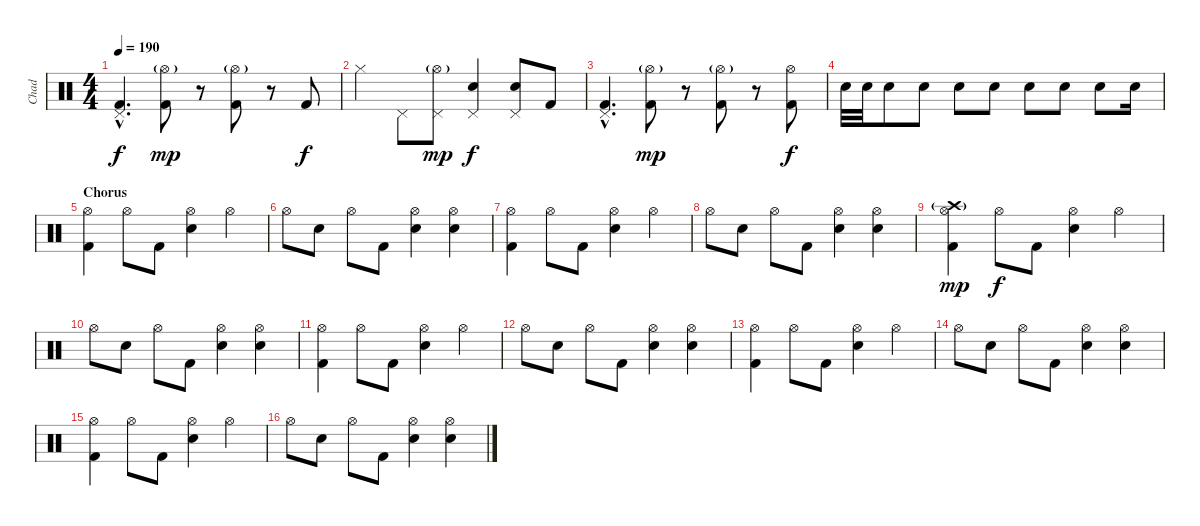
\track ("Chad" "Chad") {instrument percussion}
\staff {score}
\articulation defaults
\ts (4 4)
\tempo 190
\clef neutral
\ks c
("Kick (hit) 2"{hac} "Pedal Hi-Hat (hit)"{hac}).4{d dy f} ("Kick (hit) 2" "Hi-Hat (open)"{g}).8{dy mp} r.8 ("Kick (hit) 2" "Hi-Hat (open)"{g}).8 r.8 "Kick (hit) 2".8{dy f} |
"Hi-Hat (closed)".4 "Pedal Hi-Hat (hit)".8 ("Pedal Hi-Hat (hit)" "Hi-Hat (open)"{g}).8{dy mp} ("Electric Snare (hit)" "Pedal Hi-Hat (hit)").4{dy f} ("Electric Snare (hit)" "Pedal Hi-Hat (hit)").8 "Kick (hit) 2".8 |
("Kick (hit) 2"{hac} "Pedal Hi-Hat (hit)"{hac}).4{d} ("Kick (hit) 2" "Hi-Hat (open)"{g}).8{dy mp} r.8 ("Kick (hit) 2" "Hi-Hat (open)"{g}).8 r.8 ("Kick (hit) 2" "Hi-Hat (open)").8{dy f} |
"Electric Snare (hit)".32 "Electric Snare (hit)".32 "Electric Snare (hit)".8 "Electric Snare (hit)".8 "Electric Snare (hit)".8 "Electric Snare (hit)".8 "Electric Snare (hit)".8 "Electric Snare (hit)".8 "Electric Snare (hit)".8 "Electric Snare (hit)".16 |
\section ("" "Chorus")
("Hi-Hat (open)" "Kick (hit) 2").4 "Hi-Hat (open)".8 "Kick (hit) 2".8 ("Hi-Hat (open)" "Electric Snare (hit)").4 "Hi-Hat (open)".4 |
"Hi-Hat (open)".8 "Electric Snare (hit)".8 "Hi-Hat (open)".8 "Kick (hit) 2".8 ("Hi-Hat (open)" "Electric Snare (hit)").4 ("Hi-Hat (open)" "Electric Snare (hit)").4 |
("Hi-Hat (open)" "Kick (hit) 2").4 "Hi-Hat (open)".8 "Kick (hit) 2".8 ("Hi-Hat (open)" "Electric Snare (hit)").4 "Hi-Hat (open)".4 |
"Hi-Hat (open)".8 "Electric Snare (hit)".8 "Hi-Hat (open)".8 "Kick (hit) 2".8 ("Hi-Hat (open)" "Electric Snare (hit)").4 ("Hi-Hat (open)" "Electric Snare (hit)").4 |
("Hi-Hat (open)" "Kick (hit) 2" "Crash high (hit)"{g}).4{dy mp} "Hi-Hat (open)".8{dy f} "Kick (hit) 2".8 ("Hi-Hat (open)" "Electric Snare (hit)").4 "Hi-Hat (open)".4 |
"Hi-Hat (open)".8 "Electric Snare (hit)".8 "Hi-Hat (open)".8 "Kick (hit) 2".8 ("Hi-Hat (open)" "Electric Snare (hit)").4 ("Hi-Hat (open)" "Electric Snare (hit)").4 |
("Hi-Hat (open)" "Kick (hit) 2").4 "Hi-Hat (open)".8 "Kick (hit) 2".8 ("Hi-Hat (open)" "Electric Snare (hit)").4 "Hi-Hat (open)".4 |
"Hi-Hat (open)".8 "Electric Snare (hit)".8 "Hi-Hat (open)".8 "Kick (hit) 2".8 ("Hi-Hat (open)" "Electric Snare (hit)").4 ("Hi-Hat (open)" "Electric Snare (hit)").4 |
("Hi-Hat (open)" "Kick (hit) 2").4 "Hi-Hat (open)".8 "Kick (hit) 2".8 ("Hi-Hat (open)" "Electric Snare (hit)").4 "Hi-Hat (open)".4 |
"Hi-Hat (open)".8 "Electric Snare (hit)".8 "Hi-Hat (open)".8 "Kick (hit) 2".8 ("Hi-Hat (open)" "Electric Snare (hit)").4 ("Hi-Hat (open)" "Electric Snare (hit)").4 |
("Hi-Hat (open)" "Kick (hit) 2").4 "Hi-Hat (open)".8 "Kick (hit) 2".8 ("Hi-Hat (open)" "Electric Snare (hit)").4 "Hi-Hat (open)".4 |
"Hi-Hat (open)".8 "Electric Snare (hit)".8 "Hi-Hat (open)".8 "Kick (hit) 2".8 ("Hi-Hat (open)" "Electric Snare (hit)").4 ("Hi-Hat (open)" "Electric Snare (hit)").4
